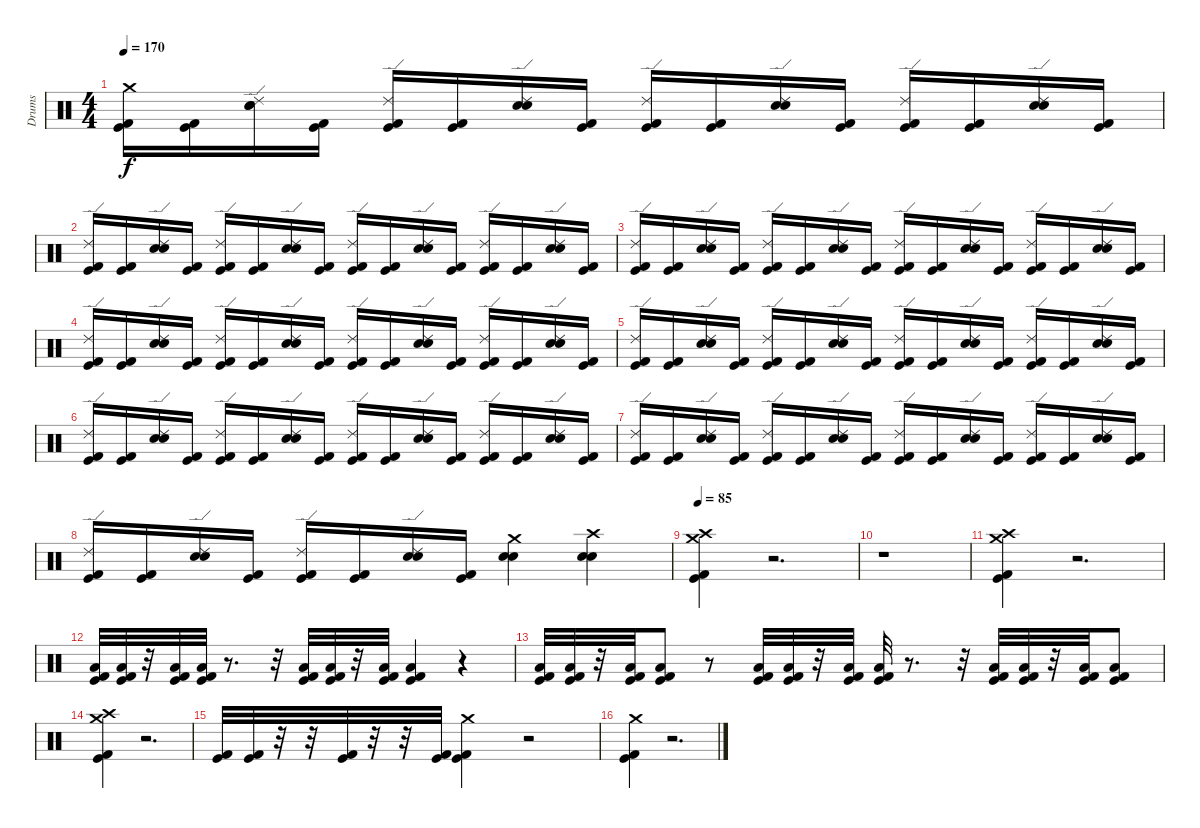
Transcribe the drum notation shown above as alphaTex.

\track ("Drums" "Drums") {instrument percussion}
\staff {score}
\articulation defaults
\ts (4 4)
\tempo 170
\clef neutral
\ks c
("Crash medium (hit)" "Kick (hit) 2" "Kick (hit)").16{dy f} ("Kick (hit) 2" "Kick (hit)").16 ("Electric Snare (hit)" "Snare (hit) 2" "Ride (edge) 2").16 ("Kick (hit) 2" "Kick (hit)").16 ("Ride (edge) 2" "Kick (hit) 2" "Kick (hit)").16 ("Kick (hit) 2" "Kick (hit)").16 ("Electric Snare (hit)" "Snare (hit) 2" "Ride (edge) 2").16 ("Kick (hit) 2" "Kick (hit)").16 ("Ride (edge) 2" "Kick (hit) 2" "Kick (hit)").16 ("Kick (hit) 2" "Kick (hit)").16 ("Electric Snare (hit)" "Snare (hit) 2" "Ride (edge) 2").16 ("Kick (hit) 2" "Kick (hit)").16 ("Ride (edge) 2" "Kick (hit) 2" "Kick (hit)").16 ("Kick (hit) 2" "Kick (hit)").16 ("Electric Snare (hit)" "Snare (hit) 2" "Ride (edge) 2").16 ("Kick (hit) 2" "Kick (hit)").16 |
("Ride (edge) 2" "Kick (hit) 2" "Kick (hit)").16 ("Kick (hit) 2" "Kick (hit)").16 ("Electric Snare (hit)" "Snare (hit) 2" "Ride (edge) 2").16 ("Kick (hit) 2" "Kick (hit)").16 ("Ride (edge) 2" "Kick (hit) 2" "Kick (hit)").16 ("Kick (hit) 2" "Kick (hit)").16 ("Electric Snare (hit)" "Snare (hit) 2" "Ride (edge) 2").16 ("Kick (hit) 2" "Kick (hit)").16 ("Ride (edge) 2" "Kick (hit) 2" "Kick (hit)").16 ("Kick (hit) 2" "Kick (hit)").16 ("Electric Snare (hit)" "Snare (hit) 2" "Ride (edge) 2").16 ("Kick (hit) 2" "Kick (hit)").16 ("Ride (edge) 2" "Kick (hit) 2" "Kick (hit)").16 ("Kick (hit) 2" "Kick (hit)").16 ("Electric Snare (hit)" "Snare (hit) 2" "Ride (edge) 2").16 ("Kick (hit) 2" "Kick (hit)").16 |
("Ride (edge) 2" "Kick (hit) 2" "Kick (hit)").16 ("Kick (hit) 2" "Kick (hit)").16 ("Electric Snare (hit)" "Snare (hit) 2" "Ride (edge) 2").16 ("Kick (hit) 2" "Kick (hit)").16 ("Ride (edge) 2" "Kick (hit) 2" "Kick (hit)").16 ("Kick (hit) 2" "Kick (hit)").16 ("Electric Snare (hit)" "Snare (hit) 2" "Ride (edge) 2").16 ("Kick (hit) 2" "Kick (hit)").16 ("Ride (edge) 2" "Kick (hit) 2" "Kick (hit)").16 ("Kick (hit) 2" "Kick (hit)").16 ("Electric Snare (hit)" "Snare (hit) 2" "Ride (edge) 2").16 ("Kick (hit) 2" "Kick (hit)").16 ("Ride (edge) 2" "Kick (hit) 2" "Kick (hit)").16 ("Kick (hit) 2" "Kick (hit)").16 ("Electric Snare (hit)" "Snare (hit) 2" "Ride (edge) 2").16 ("Kick (hit) 2" "Kick (hit)").16 |
("Ride (edge) 2" "Kick (hit) 2" "Kick (hit)").16 ("Kick (hit) 2" "Kick (hit)").16 ("Electric Snare (hit)" "Snare (hit) 2" "Ride (edge) 2").16 ("Kick (hit) 2" "Kick (hit)").16 ("Ride (edge) 2" "Kick (hit) 2" "Kick (hit)").16 ("Kick (hit) 2" "Kick (hit)").16 ("Electric Snare (hit)" "Snare (hit) 2" "Ride (edge) 2").16 ("Kick (hit) 2" "Kick (hit)").16 ("Ride (edge) 2" "Kick (hit) 2" "Kick (hit)").16 ("Kick (hit) 2" "Kick (hit)").16 ("Electric Snare (hit)" "Snare (hit) 2" "Ride (edge) 2").16 ("Kick (hit) 2" "Kick (hit)").16 ("Ride (edge) 2" "Kick (hit) 2" "Kick (hit)").16 ("Kick (hit) 2" "Kick (hit)").16 ("Electric Snare (hit)" "Snare (hit) 2" "Ride (edge) 2").16 ("Kick (hit) 2" "Kick (hit)").16 |
("Ride (edge) 2" "Kick (hit) 2" "Kick (hit)").16 ("Kick (hit) 2" "Kick (hit)").16 ("Electric Snare (hit)" "Snare (hit) 2" "Ride (edge) 2").16 ("Kick (hit) 2" "Kick (hit)").16 ("Ride (edge) 2" "Kick (hit) 2" "Kick (hit)").16 ("Kick (hit) 2" "Kick (hit)").16 ("Electric Snare (hit)" "Snare (hit) 2" "Ride (edge) 2").16 ("Kick (hit) 2" "Kick (hit)").16 ("Ride (edge) 2" "Kick (hit) 2" "Kick (hit)").16 ("Kick (hit) 2" "Kick (hit)").16 ("Electric Snare (hit)" "Snare (hit) 2" "Ride (edge) 2").16 ("Kick (hit) 2" "Kick (hit)").16 ("Ride (edge) 2" "Kick (hit) 2" "Kick (hit)").16 ("Kick (hit) 2" "Kick (hit)").16 ("Electric Snare (hit)" "Snare (hit) 2" "Ride (edge) 2").16 ("Kick (hit) 2" "Kick (hit)").16 |
("Ride (edge) 2" "Kick (hit) 2" "Kick (hit)").16 ("Kick (hit) 2" "Kick (hit)").16 ("Electric Snare (hit)" "Snare (hit) 2" "Ride (edge) 2").16 ("Kick (hit) 2" "Kick (hit)").16 ("Ride (edge) 2" "Kick (hit) 2" "Kick (hit)").16 ("Kick (hit) 2" "Kick (hit)").16 ("Electric Snare (hit)" "Snare (hit) 2" "Ride (edge) 2").16 ("Kick (hit) 2" "Kick (hit)").16 ("Ride (edge) 2" "Kick (hit) 2" "Kick (hit)").16 ("Kick (hit) 2" "Kick (hit)").16 ("Electric Snare (hit)" "Snare (hit) 2" "Ride (edge) 2").16 ("Kick (hit) 2" "Kick (hit)").16 ("Ride (edge) 2" "Kick (hit) 2" "Kick (hit)").16 ("Kick (hit) 2" "Kick (hit)").16 ("Electric Snare (hit)" "Snare (hit) 2" "Ride (edge) 2").16 ("Kick (hit) 2" "Kick (hit)").16 |
("Ride (edge) 2" "Kick (hit) 2" "Kick (hit)").16 ("Kick (hit) 2" "Kick (hit)").16 ("Electric Snare (hit)" "Snare (hit) 2" "Ride (edge) 2").16 ("Kick (hit) 2" "Kick (hit)").16 ("Ride (edge) 2" "Kick (hit) 2" "Kick (hit)").16 ("Kick (hit) 2" "Kick (hit)").16 ("Electric Snare (hit)" "Snare (hit) 2" "Ride (edge) 2").16 ("Kick (hit) 2" "Kick (hit)").16 ("Ride (edge) 2" "Kick (hit) 2" "Kick (hit)").16 ("Kick (hit) 2" "Kick (hit)").16 ("Electric Snare (hit)" "Snare (hit) 2" "Ride (edge) 2").16 ("Kick (hit) 2" "Kick (hit)").16 ("Ride (edge) 2" "Kick (hit) 2" "Kick (hit)").16 ("Kick (hit) 2" "Kick (hit)").16 ("Electric Snare (hit)" "Snare (hit) 2" "Ride (edge) 2").16 ("Kick (hit) 2" "Kick (hit)").16 |
("Ride (edge) 2" "Kick (hit) 2" "Kick (hit)").16 ("Kick (hit) 2" "Kick (hit)").16 ("Electric Snare (hit)" "Snare (hit) 2" "Ride (edge) 2").16 ("Kick (hit) 2" "Kick (hit)").16 ("Ride (edge) 2" "Kick (hit) 2" "Kick (hit)").16 ("Kick (hit) 2" "Kick (hit)").16 ("Electric Snare (hit)" "Snare (hit) 2" "Ride (edge) 2").16 ("Kick (hit) 2" "Kick (hit)").16 ("Crash medium (hit)" "Electric Snare (hit)" "Snare (hit) 2").4 ("Electric Snare (hit)" "Snare (hit) 2" "Crash high (hit)").4 |
\tempo 85
("Crash high (hit)" "Crash medium (hit)" "Kick (hit) 2" "Kick (hit)").4 r.2{d} |
r.1 |
("Crash medium (hit)" "Crash high (hit)" "Kick (hit)" "Kick (hit) 2").4 r.2{d} |
("Kick (hit)" "Low Tom (hit)" "Kick (hit) 2").32 ("Kick (hit)" "Low Tom (hit)" "Kick (hit) 2").32 r.32 ("Kick (hit)" "Low Tom (hit)" "Kick (hit) 2").32 ("Kick (hit)" "Low Tom (hit)" "Kick (hit) 2").32 r.8{d} r.32 ("Kick (hit)" "Low Tom (hit)" "Kick (hit) 2").32 ("Kick (hit)" "Low Tom (hit)" "Kick (hit) 2").32 r.32 ("Kick (hit)" "Low Tom (hit)" "Kick (hit) 2").32 ("Kick (hit)" "Low Tom (hit)" "Kick (hit) 2").4 r.4 |
("Kick (hit)" "Kick (hit) 2" "Low Tom (hit)").32 ("Kick (hit)" "Kick (hit) 2" "Low Tom (hit)").32 r.32 ("Kick (hit)" "Kick (hit) 2" "Low Tom (hit)").32 ("Kick (hit)" "Kick (hit) 2" "Low Tom (hit)").8 r.8 ("Kick (hit)" "Kick (hit) 2" "Low Tom (hit)").32 ("Kick (hit)" "Kick (hit) 2" "Low Tom (hit)").32 r.32 ("Kick (hit) 2" "Kick (hit)" "Low Tom (hit)").32 ("Kick (hit) 2" "Kick (hit)" "Low Tom (hit)").32 r.8{d} r.32 ("Kick (hit)" "Kick (hit) 2" "Low Tom (hit)").32 ("Kick (hit)" "Kick (hit) 2" "Low Tom (hit)").32 r.32 ("Kick (hit)" "Kick (hit) 2" "Low Tom (hit)").32 ("Kick (hit)" "Kick (hit) 2" "Low Tom (hit)").8 |
("Crash medium (hit)" "Crash high (hit)" "Kick (hit) 2" "Kick (hit)").4 r.2{d} |
("Kick (hit) 2" "Kick (hit)").32 ("Kick (hit) 2" "Kick (hit)").32 r.32 r.32 ("Kick (hit) 2" "Kick (hit)").32 r.32 r.32 ("Kick (hit) 2" "Kick (hit)").32 ("Crash medium (hit)" "Kick (hit) 2" "Kick (hit)").4 r.2 |
("Crash medium (hit)" "Kick (hit) 2" "Kick (hit)").4 r.2{d}
